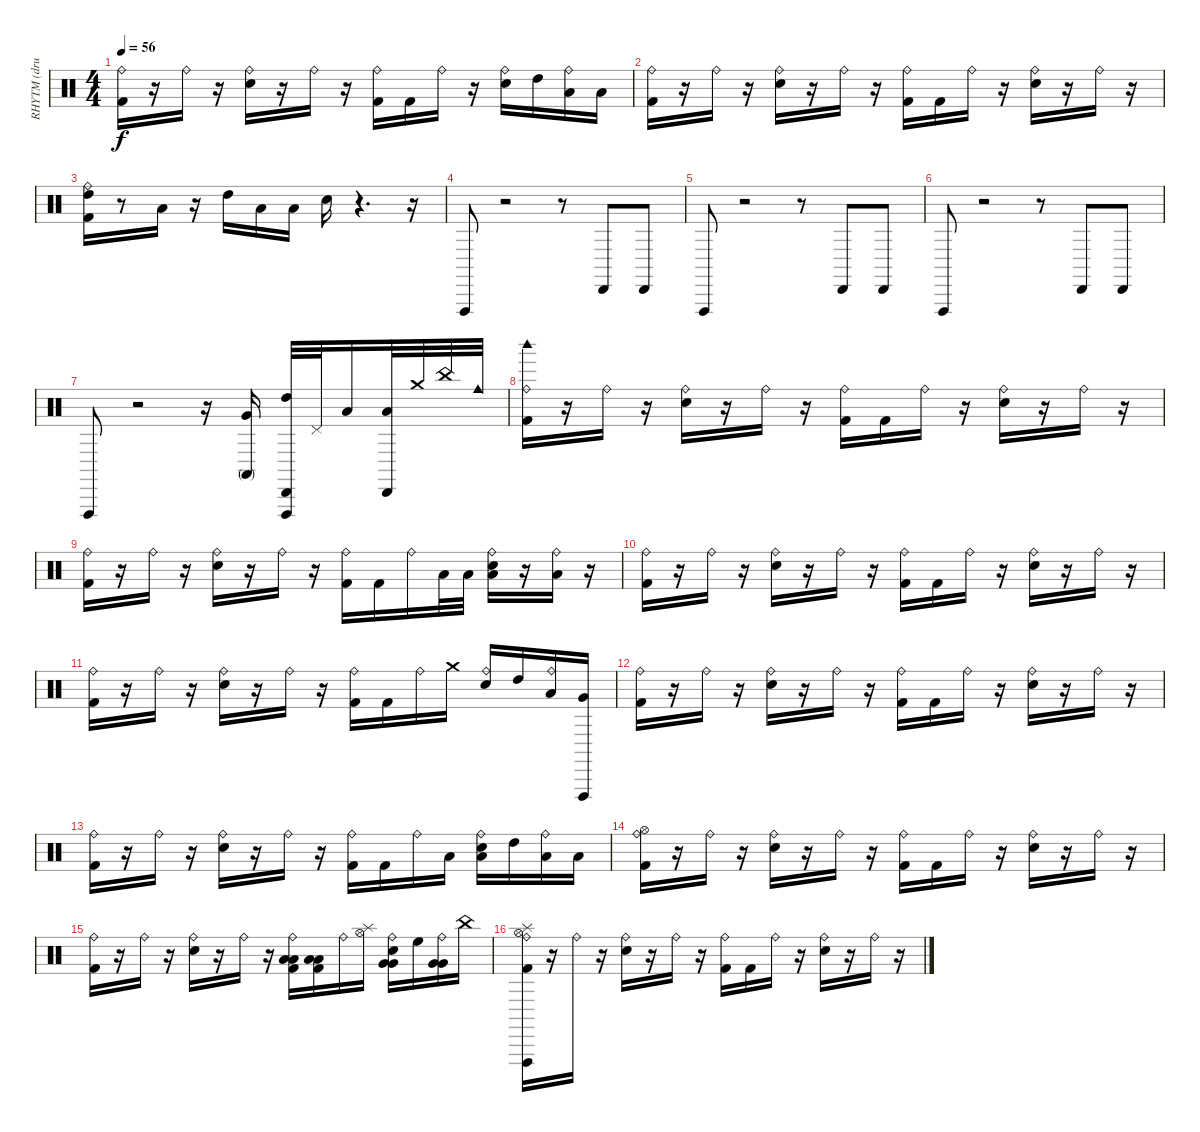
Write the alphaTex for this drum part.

\track ("RHYTM (drums)" "RHYTM (dru") {instrument percussion}
\staff {score}
\articulation defaults
\ts (4 4)
\tempo 56
\clef neutral
\ks c
("Ride (bell)" "Kick (hit) 2").16{dy f} r.16 "Ride (bell)".16 r.16 ("Ride (bell)" "Electric Snare (hit)").16 r.16 "Ride (bell)".16 r.16 ("Ride (bell)" "Kick (hit) 2").16 "Kick (hit) 2".16 "Ride (bell)".16 r.16 ("Ride (bell)" "Electric Snare (hit)").16 "High Tom (hit)".16 ("Low Tom (hit)" "Ride (bell)").16 "Low Floor Tom (hit)".16 |
("Ride (bell)" "Kick (hit) 2").16 r.16 "Ride (bell)".16 r.16 ("Ride (bell)" "Electric Snare (hit)").16 r.16 "Ride (bell)".16 r.16 ("Ride (bell)" "Kick (hit) 2").16 "Kick (hit) 2".16 "Ride (bell)".16 r.16 ("Ride (bell)" "Electric Snare (hit)").16 r.16 "Ride (bell)".16 r.16 |
("High Tom (hit)" "Ride (bell)" "Kick (hit) 2").16 r.8 "Low Tom (hit)".16 r.16 "High Tom (hit)".16 "Low Tom (hit)".16 "Low Floor Tom (hit)".16 "Snare (hit) 2".16 r.4{d} r.16 |
"Vibraslap (hit)".8 r.2 r.8 "Cabasa (hit)".8 "Cabasa (hit)".8 |
"Vibraslap (hit)".8 r.2 r.8 "Cabasa (hit)".8 "Cabasa (hit)".8 |
"Vibraslap (hit)".8 r.2 r.8 "Cabasa (hit)".8 "Cabasa (hit)".8 |
"Vibraslap (hit)".8 r.2 r.16 ("Conga high (mute)" "Very Low Tom (hit)").16{volume 11} ("Vibraslap (hit)" "High Tom (hit)" "Cabasa (hit)").32{volume 12} "Pedal Hi-Hat (hit)".32{volume 13} "Low Tom (hit)".16{volume 13} ("Low Floor Tom (hit)" "Cabasa (hit)").32{volume 14} "Crash medium (hit)".32{volume 14} "China (hit)".32{volume 15} "Cowbell medium (hit)".32{volume 15} |
("Kick (hit) 2" "Ride (bell)" "Woodblock high (hit)").16{volume 15} r.16 "Ride (bell)".16{volume 16} r.16 ("Ride (bell)" "Electric Snare (hit)").16 r.16 "Ride (bell)".16{volume 15} r.16 ("Ride (bell)" "Kick (hit) 2").16{volume 15} "Kick (hit) 2".16 "Ride (bell)".16{volume 15} r.16 ("Ride (bell)" "Electric Snare (hit)").16 r.16 "Ride (bell)".16 r.16 |
("Ride (bell)" "Kick (hit) 2").16 r.16 "Ride (bell)".16 r.16 ("Ride (bell)" "Electric Snare (hit)").16 r.16 "Ride (bell)".16 r.16 ("Ride (bell)" "Kick (hit) 2").16 "Kick (hit) 2".16 "Ride (bell)".16 "Low Tom (hit)".32 "Low Tom (hit)".32 ("Low Tom (hit)" "Ride (bell)" "Electric Snare (hit)").16 r.16 ("Low Floor Tom (hit)" "Ride (bell)").16 r.16 |
("Ride (bell)" "Kick (hit) 2").16 r.16 "Ride (bell)".16 r.16 ("Ride (bell)" "Electric Snare (hit)").16 r.16 "Ride (bell)".16 r.16 ("Ride (bell)" "Kick (hit) 2").16 "Kick (hit) 2".16 "Ride (bell)".16 r.16 ("Ride (bell)" "Electric Snare (hit)").16 r.16 "Ride (bell)".16 r.16 |
("Ride (bell)" "Kick (hit) 2").16 r.16 "Ride (bell)".16 r.16 ("Ride (bell)" "Electric Snare (hit)").16 r.16 "Ride (bell)".16 r.16 ("Ride (bell)" "Kick (hit) 2").16 "Kick (hit) 2".16 "Ride (bell)".16 "Crash medium (hit)".16 ("Ride (bell)" "Electric Snare (hit)").16 "High Tom (hit)".16 ("Low Tom (hit)" "Ride (bell)").16 ("Vibraslap (hit)" "Very Low Tom (hit)").16 |
("Ride (bell)" "Kick (hit) 2").16 r.16 "Ride (bell)".16 r.16 ("Ride (bell)" "Electric Snare (hit)").16 r.16 "Ride (bell)".16 r.16 ("Ride (bell)" "Kick (hit) 2").16 "Kick (hit) 2".16 "Ride (bell)".16 r.16 ("Ride (bell)" "Electric Snare (hit)").16 r.16 "Ride (bell)".16 r.16 |
("Ride (bell)" "Kick (hit) 2").16 r.16 "Ride (bell)".16 r.16 ("Ride (bell)" "Electric Snare (hit)").16 r.16 "Ride (bell)".16 r.16 ("Ride (bell)" "Kick (hit) 2").16 "Kick (hit) 2".16 "Ride (bell)".16 "Low Tom (hit)".16 ("Low Tom (hit)" "Ride (bell)" "Electric Snare (hit)").16 "High Tom (hit)".16 ("Low Tom (hit)" "Ride (bell)").16 "Low Floor Tom (hit)".16 |
("Hi-Hat (open)" "Ride (bell)" "Kick (hit) 2").16 r.16 "Ride (bell)".16 r.16 ("Ride (bell)" "Electric Snare (hit)").16 r.16 "Ride (bell)".16 r.16 ("Ride (bell)" "Kick (hit) 2").16 "Kick (hit) 2".16 "Ride (bell)".16 r.16 ("Ride (bell)" "Electric Snare (hit)").16 r.16 "Ride (bell)".16 r.16 |
("Ride (bell)" "Kick (hit) 2").16 r.16 "Ride (bell)".16 r.16 ("Ride (bell)" "Electric Snare (hit)").16 r.16 "Ride (bell)".16 r.16 ("Low Tom (hit)" "Low Tom (hit)" "Ride (bell)" "Kick (hit) 2").16 ("Low Tom (hit)" "Low Tom (hit)" "Kick (hit) 2").16 "Ride (bell)".16 ("Hi-Hat (open)" "Splash (hit)").16 ("Very Low Tom (hit)" "Very Low Tom (hit)" "Ride (bell)" "Electric Snare (hit)").16 "High Floor Tom (hit)".16 ("Very Low Tom (hit)" "Very Low Tom (hit)" "Ride (bell)").16 "China (hit)".16 |
("Splash (hit)" "Hi-Hat (open)" "Vibraslap (hit)" "Ride (bell)" "Kick (hit) 2").16 r.16 "Ride (bell)".16 r.16 ("Ride (bell)" "Electric Snare (hit)").16 r.16 "Ride (bell)".16 r.16 ("Ride (bell)" "Kick (hit) 2").16 "Kick (hit) 2".16 "Ride (bell)".16 r.16 ("Ride (bell)" "Electric Snare (hit)").16 r.16 "Ride (bell)".16 r.16
